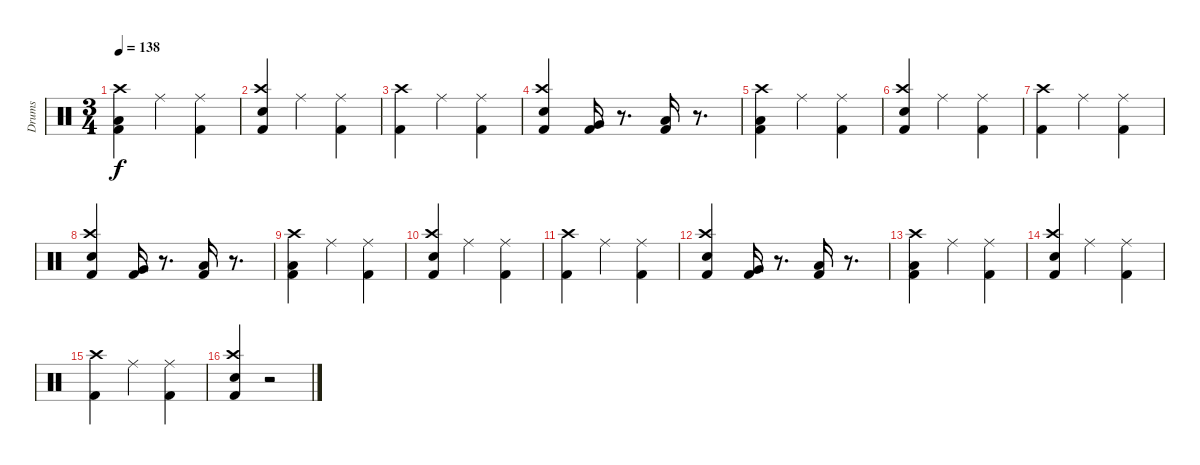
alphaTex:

\track ("Drums" "Drums") {instrument percussion}
\staff {score}
\articulation defaults
\ts (3 4)
\tempo 138
\clef neutral
\ks c
("Kick (hit) 2" "Low Floor Tom (hit)" "Crash high (hit)").4{dy f} "Ride (middle)".4 ("Ride (middle)" "Kick (hit) 2").4 |
("Kick (hit) 2" "Snare (hit) 2" "Crash high (hit)").4 "Ride (middle)".4 ("Kick (hit) 2" "Ride (middle)").4 |
("Kick (hit) 2" "Crash high (hit)").4 "Ride (middle)".4 ("Kick (hit) 2" "Ride (middle)").4 |
("Snare (hit) 2" "Kick (hit) 2" "Crash high (hit)").4 ("Very Low Tom (hit)" "Kick (hit) 2").16 r.8{d} ("Low Floor Tom (hit)" "Kick (hit) 2").16 r.8{d} |
("Kick (hit) 2" "Low Floor Tom (hit)" "Crash high (hit)").4 "Ride (middle)".4 ("Ride (middle)" "Kick (hit) 2").4 |
("Kick (hit) 2" "Snare (hit) 2" "Crash high (hit)").4 "Ride (middle)".4 ("Kick (hit) 2" "Ride (middle)").4 |
("Kick (hit) 2" "Crash high (hit)").4 "Ride (middle)".4 ("Kick (hit) 2" "Ride (middle)").4 |
("Snare (hit) 2" "Kick (hit) 2" "Crash high (hit)").4 ("Very Low Tom (hit)" "Kick (hit) 2").16 r.8{d} ("Low Floor Tom (hit)" "Kick (hit) 2").16 r.8{d} |
("Kick (hit) 2" "Low Floor Tom (hit)" "Crash high (hit)").4 "Ride (middle)".4 ("Ride (middle)" "Kick (hit) 2").4 |
("Kick (hit) 2" "Snare (hit) 2" "Crash high (hit)").4 "Ride (middle)".4 ("Kick (hit) 2" "Ride (middle)").4 |
("Kick (hit) 2" "Crash high (hit)").4 "Ride (middle)".4 ("Kick (hit) 2" "Ride (middle)").4 |
("Snare (hit) 2" "Kick (hit) 2" "Crash high (hit)").4 ("Very Low Tom (hit)" "Kick (hit) 2").16 r.8{d} ("Low Floor Tom (hit)" "Kick (hit) 2").16 r.8{d} |
("Kick (hit) 2" "Low Floor Tom (hit)" "Crash high (hit)").4 "Ride (middle)".4 ("Ride (middle)" "Kick (hit) 2").4 |
("Kick (hit) 2" "Snare (hit) 2" "Crash high (hit)").4 "Ride (middle)".4 ("Kick (hit) 2" "Ride (middle)").4 |
("Kick (hit) 2" "Crash high (hit)").4 "Ride (middle)".4 ("Kick (hit) 2" "Ride (middle)").4 |
("Snare (hit) 2" "Kick (hit) 2" "Crash high (hit)").4 r.2
